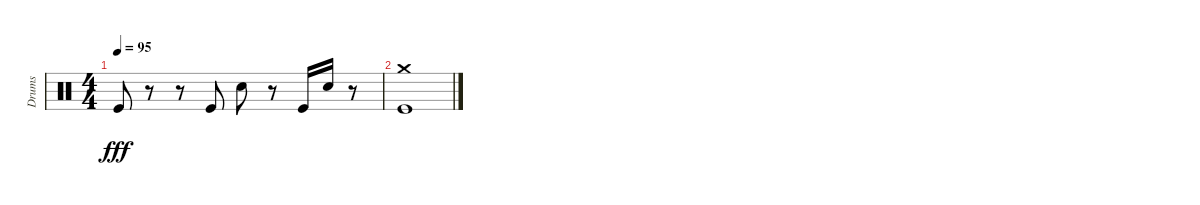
\track ("Drums" "Drums") {instrument percussion}
\staff {score}
\articulation defaults
\ts (4 4)
\tempo 95
\clef neutral
\ks c "Kick (hit)".8{dy fff}
r.8 r.8 "Kick (hit)".8 "Electric Snare (hit)".8 r.8 "Kick (hit)".16 "Electric Snare (hit)".16 r.8 |
("Crash medium (hit)" "Kick (hit)").1
